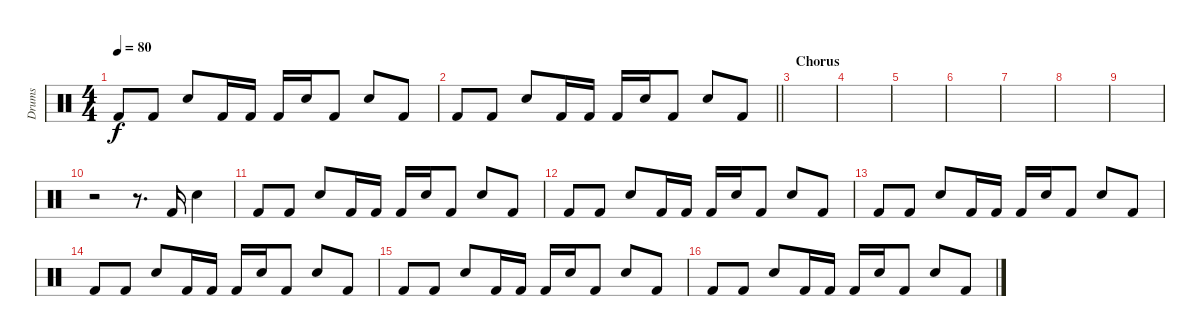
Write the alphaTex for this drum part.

\track ("Drums" "Drums") {instrument percussion}
\staff
\articulation defaults
\ts (4 4)
\tempo 80
\clef neutral
\ks c "Kick (hit) 2".8{dy f} "Kick (hit) 2".8 "Snare (hit) 2".8 "Kick (hit) 2".16 "Kick (hit) 2".16 "Kick (hit) 2".16 "Snare (hit) 2".16 "Kick (hit) 2".8 "Snare (hit) 2".8 "Kick (hit) 2".8
|
\barLineRight lightlight "Kick (hit) 2".8 "Kick (hit) 2".8 "Snare (hit) 2".8 "Kick (hit) 2".16 "Kick (hit) 2".16 "Kick (hit) 2".16 "Snare (hit) 2".16 "Kick (hit) 2".8 "Snare (hit) 2".8 "Kick (hit) 2".8
|
\section ("" "Chorus")
|
|
|
|
|
|
|
r.2 r.8{d} "Kick (hit) 2".16 "Snare (hit) 2".4 |
"Kick (hit) 2".8 "Kick (hit) 2".8 "Snare (hit) 2".8 "Kick (hit) 2".16 "Kick (hit) 2".16 "Kick (hit) 2".16 "Snare (hit) 2".16 "Kick (hit) 2".8 "Snare (hit) 2".8 "Kick (hit) 2".8 |
"Kick (hit) 2".8 "Kick (hit) 2".8 "Snare (hit) 2".8 "Kick (hit) 2".16 "Kick (hit) 2".16 "Kick (hit) 2".16 "Snare (hit) 2".16 "Kick (hit) 2".8 "Snare (hit) 2".8 "Kick (hit) 2".8 |
"Kick (hit) 2".8 "Kick (hit) 2".8 "Snare (hit) 2".8 "Kick (hit) 2".16 "Kick (hit) 2".16 "Kick (hit) 2".16 "Snare (hit) 2".16 "Kick (hit) 2".8 "Snare (hit) 2".8 "Kick (hit) 2".8 |
"Kick (hit) 2".8 "Kick (hit) 2".8 "Snare (hit) 2".8 "Kick (hit) 2".16 "Kick (hit) 2".16 "Kick (hit) 2".16 "Snare (hit) 2".16 "Kick (hit) 2".8 "Snare (hit) 2".8 "Kick (hit) 2".8 |
"Kick (hit) 2".8 "Kick (hit) 2".8 "Snare (hit) 2".8 "Kick (hit) 2".16 "Kick (hit) 2".16 "Kick (hit) 2".16 "Snare (hit) 2".16 "Kick (hit) 2".8 "Snare (hit) 2".8 "Kick (hit) 2".8 |
"Kick (hit) 2".8 "Kick (hit) 2".8 "Snare (hit) 2".8 "Kick (hit) 2".16 "Kick (hit) 2".16 "Kick (hit) 2".16 "Snare (hit) 2".16 "Kick (hit) 2".8 "Snare (hit) 2".8 "Kick (hit) 2".8
